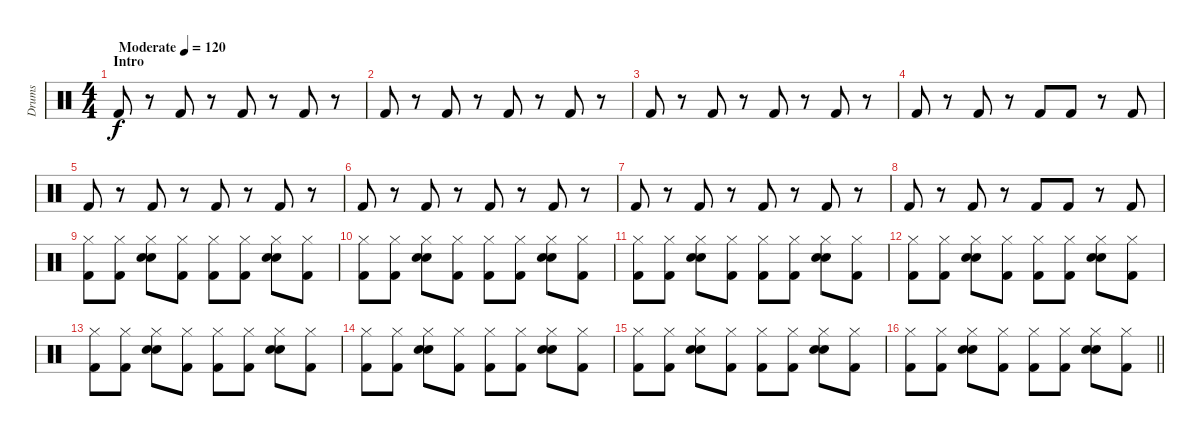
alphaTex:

\track ("Drums" "Drums") {instrument percussion}
\staff {score}
\articulation defaults
\ts (4 4)
\section ("" "Intro")
\tempo (120 "Moderate")
\clef neutral
\ks c "Kick (hit) 2".8{dy f}
r.8 "Kick (hit) 2".8 r.8 "Kick (hit) 2".8 r.8 "Kick (hit) 2".8 r.8 |
"Kick (hit) 2".8 r.8 "Kick (hit) 2".8 r.8 "Kick (hit) 2".8 r.8 "Kick (hit) 2".8 r.8 |
"Kick (hit) 2".8 r.8 "Kick (hit) 2".8 r.8 "Kick (hit) 2".8 r.8 "Kick (hit) 2".8 r.8 |
"Kick (hit) 2".8 r.8 "Kick (hit) 2".8 r.8 "Kick (hit) 2".8 "Kick (hit) 2".8 r.8 "Kick (hit) 2".8 |
"Kick (hit) 2".8 r.8 "Kick (hit) 2".8 r.8 "Kick (hit) 2".8 r.8 "Kick (hit) 2".8 r.8 |
"Kick (hit) 2".8 r.8 "Kick (hit) 2".8 r.8 "Kick (hit) 2".8 r.8 "Kick (hit) 2".8 r.8 |
"Kick (hit) 2".8 r.8 "Kick (hit) 2".8 r.8 "Kick (hit) 2".8 r.8 "Kick (hit) 2".8 r.8 |
"Kick (hit) 2".8 r.8 "Kick (hit) 2".8 r.8 "Kick (hit) 2".8 "Kick (hit) 2".8 r.8 "Kick (hit) 2".8 |
("Hi-Hat (closed)" "Kick (hit) 2").8 ("Hi-Hat (closed)" "Kick (hit) 2").8 ("Hand Clap (hit)" "Hi-Hat (closed)" "Electric Snare (hit)").8 ("Hi-Hat (closed)" "Kick (hit) 2").8 ("Hi-Hat (closed)" "Kick (hit) 2").8 ("Hi-Hat (closed)" "Kick (hit) 2").8 ("Hand Clap (hit)" "Hi-Hat (closed)" "Electric Snare (hit)").8 ("Hi-Hat (closed)" "Kick (hit) 2").8 |
("Hi-Hat (closed)" "Kick (hit) 2").8 ("Hi-Hat (closed)" "Kick (hit) 2").8 ("Hand Clap (hit)" "Hi-Hat (closed)" "Electric Snare (hit)").8 ("Hi-Hat (closed)" "Kick (hit) 2").8 ("Hi-Hat (closed)" "Kick (hit) 2").8 ("Hi-Hat (closed)" "Kick (hit) 2").8 ("Hand Clap (hit)" "Hi-Hat (closed)" "Electric Snare (hit)").8 ("Hi-Hat (closed)" "Kick (hit) 2").8 |
("Hi-Hat (closed)" "Kick (hit) 2").8 ("Hi-Hat (closed)" "Kick (hit) 2").8 ("Hand Clap (hit)" "Hi-Hat (closed)" "Electric Snare (hit)").8 ("Hi-Hat (closed)" "Kick (hit) 2").8 ("Hi-Hat (closed)" "Kick (hit) 2").8 ("Hi-Hat (closed)" "Kick (hit) 2").8 ("Hand Clap (hit)" "Hi-Hat (closed)" "Electric Snare (hit)").8 ("Hi-Hat (closed)" "Kick (hit) 2").8 |
("Hi-Hat (closed)" "Kick (hit) 2").8 ("Hi-Hat (closed)" "Kick (hit) 2").8 ("Hand Clap (hit)" "Hi-Hat (closed)" "Electric Snare (hit)").8 ("Hi-Hat (closed)" "Kick (hit) 2").8 ("Hi-Hat (closed)" "Kick (hit) 2").8 ("Hi-Hat (closed)" "Kick (hit) 2").8 ("Hand Clap (hit)" "Hi-Hat (closed)" "Electric Snare (hit)").8 ("Hi-Hat (closed)" "Kick (hit) 2").8 |
("Hi-Hat (closed)" "Kick (hit) 2").8 ("Hi-Hat (closed)" "Kick (hit) 2").8 ("Hand Clap (hit)" "Hi-Hat (closed)" "Electric Snare (hit)").8 ("Hi-Hat (closed)" "Kick (hit) 2").8 ("Hi-Hat (closed)" "Kick (hit) 2").8 ("Hi-Hat (closed)" "Kick (hit) 2").8 ("Hand Clap (hit)" "Hi-Hat (closed)" "Electric Snare (hit)").8 ("Hi-Hat (closed)" "Kick (hit) 2").8 |
("Hi-Hat (closed)" "Kick (hit) 2").8 ("Hi-Hat (closed)" "Kick (hit) 2").8 ("Hand Clap (hit)" "Hi-Hat (closed)" "Electric Snare (hit)").8 ("Hi-Hat (closed)" "Kick (hit) 2").8 ("Hi-Hat (closed)" "Kick (hit) 2").8 ("Hi-Hat (closed)" "Kick (hit) 2").8 ("Hand Clap (hit)" "Hi-Hat (closed)" "Electric Snare (hit)").8 ("Hi-Hat (closed)" "Kick (hit) 2").8 |
("Hi-Hat (closed)" "Kick (hit) 2").8 ("Hi-Hat (closed)" "Kick (hit) 2").8 ("Hand Clap (hit)" "Hi-Hat (closed)" "Electric Snare (hit)").8 ("Hi-Hat (closed)" "Kick (hit) 2").8 ("Hi-Hat (closed)" "Kick (hit) 2").8 ("Hi-Hat (closed)" "Kick (hit) 2").8 ("Hand Clap (hit)" "Hi-Hat (closed)" "Electric Snare (hit)").8 ("Hi-Hat (closed)" "Kick (hit) 2").8 |
\barLineRight lightlight
("Hi-Hat (closed)" "Kick (hit) 2").8 ("Hi-Hat (closed)" "Kick (hit) 2").8 ("Hand Clap (hit)" "Hi-Hat (closed)" "Electric Snare (hit)").8 ("Hi-Hat (closed)" "Kick (hit) 2").8 ("Hi-Hat (closed)" "Kick (hit) 2").8 ("Hi-Hat (closed)" "Kick (hit) 2").8 ("Hand Clap (hit)" "Hi-Hat (closed)" "Electric Snare (hit)").8 ("Hi-Hat (closed)" "Kick (hit) 2").8
